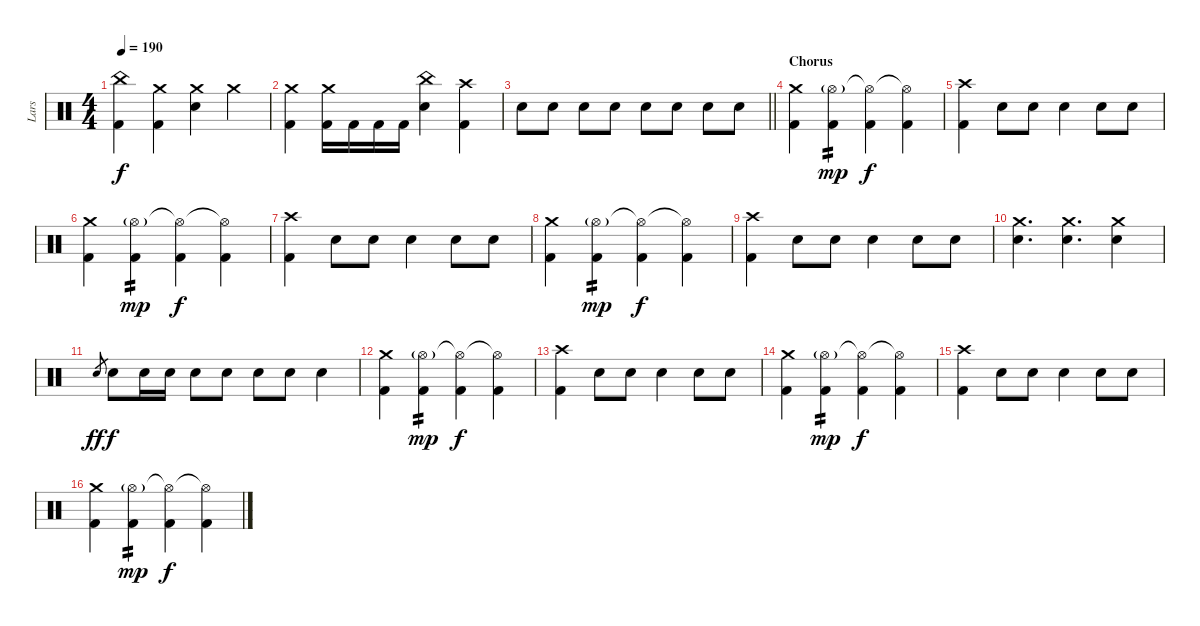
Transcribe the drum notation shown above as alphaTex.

\track ("Lars" "Lars") {instrument percussion}
\staff {score}
\articulation defaults
\ts (4 4)
\tempo 190
\clef neutral
\ks c
("China (hit)" "Kick (hit) 2").4{dy f} ("Crash medium (hit)" "Kick (hit) 2").4 ("Crash medium (hit)" "Electric Snare (hit)").4 "Crash medium (hit)".4 |
("Crash medium (hit)" "Kick (hit) 2").4 ("Crash medium (hit)" "Kick (hit) 2").16 "Kick (hit) 2".16 "Kick (hit) 2".16 "Kick (hit) 2".16 ("China (hit)" "Electric Snare (hit)").4 ("Crash high (hit)" "Kick (hit) 2").4 |
\barLineRight lightlight "Electric Snare (hit)".8 "Electric Snare (hit)".8 "Electric Snare (hit)".8 "Electric Snare (hit)".8 "Electric Snare (hit)".8 "Electric Snare (hit)".8 "Electric Snare (hit)".8 "Electric Snare (hit)".8
|
\section ("" "Chorus")
("Crash medium (hit)" "Kick (hit) 2").4 ("Hi-Hat (open)"{g} "Kick (hit) 2").4{tp 2 dy mp} ("Hi-Hat (open)"{t} "Kick (hit) 2").4{dy f} ("Hi-Hat (open)"{t} "Kick (hit) 2").4 |
("Crash high (hit)" "Kick (hit) 2").4 "Electric Snare (hit)".8 "Electric Snare (hit)".8 "Electric Snare (hit)".4 "Electric Snare (hit)".8 "Electric Snare (hit)".8 |
("Crash medium (hit)" "Kick (hit) 2").4 ("Hi-Hat (open)"{g} "Kick (hit) 2").4{tp 2 dy mp} ("Hi-Hat (open)"{t} "Kick (hit) 2").4{dy f} ("Hi-Hat (open)"{t} "Kick (hit) 2").4 |
("Crash high (hit)" "Kick (hit) 2").4 "Electric Snare (hit)".8 "Electric Snare (hit)".8 "Electric Snare (hit)".4 "Electric Snare (hit)".8 "Electric Snare (hit)".8 |
("Crash medium (hit)" "Kick (hit) 2").4 ("Hi-Hat (open)"{g} "Kick (hit) 2").4{tp 2 dy mp} ("Hi-Hat (open)"{t} "Kick (hit) 2").4{dy f} ("Hi-Hat (open)"{t} "Kick (hit) 2").4 |
("Crash high (hit)" "Kick (hit) 2").4 "Electric Snare (hit)".8 "Electric Snare (hit)".8 "Electric Snare (hit)".4 "Electric Snare (hit)".8 "Electric Snare (hit)".8 |
("Crash medium (hit)" "Electric Snare (hit)").4{d} ("Crash medium (hit)" "Electric Snare (hit)").4{d} ("Crash medium (hit)" "Electric Snare (hit)").4 |
"Electric Snare (hit)".8{gr dy ff} "Electric Snare (hit)".8{dy f} "Electric Snare (hit)".16 "Electric Snare (hit)".16 "Electric Snare (hit)".8 "Electric Snare (hit)".8 "Electric Snare (hit)".8 "Electric Snare (hit)".8 "Electric Snare (hit)".4 |
("Crash medium (hit)" "Kick (hit) 2").4 ("Hi-Hat (open)"{g} "Kick (hit) 2").4{tp 2 dy mp} ("Hi-Hat (open)"{t} "Kick (hit) 2").4{dy f} ("Hi-Hat (open)"{t} "Kick (hit) 2").4 |
("Crash high (hit)" "Kick (hit) 2").4 "Electric Snare (hit)".8 "Electric Snare (hit)".8 "Electric Snare (hit)".4 "Electric Snare (hit)".8 "Electric Snare (hit)".8 |
("Crash medium (hit)" "Kick (hit) 2").4 ("Hi-Hat (open)"{g} "Kick (hit) 2").4{tp 2 dy mp} ("Hi-Hat (open)"{t} "Kick (hit) 2").4{dy f} ("Hi-Hat (open)"{t} "Kick (hit) 2").4 |
("Crash high (hit)" "Kick (hit) 2").4 "Electric Snare (hit)".8 "Electric Snare (hit)".8 "Electric Snare (hit)".4 "Electric Snare (hit)".8 "Electric Snare (hit)".8 |
("Crash medium (hit)" "Kick (hit) 2").4 ("Hi-Hat (open)"{g} "Kick (hit) 2").4{tp 2 dy mp} ("Hi-Hat (open)"{t} "Kick (hit) 2").4{dy f} ("Hi-Hat (open)"{t} "Kick (hit) 2").4
